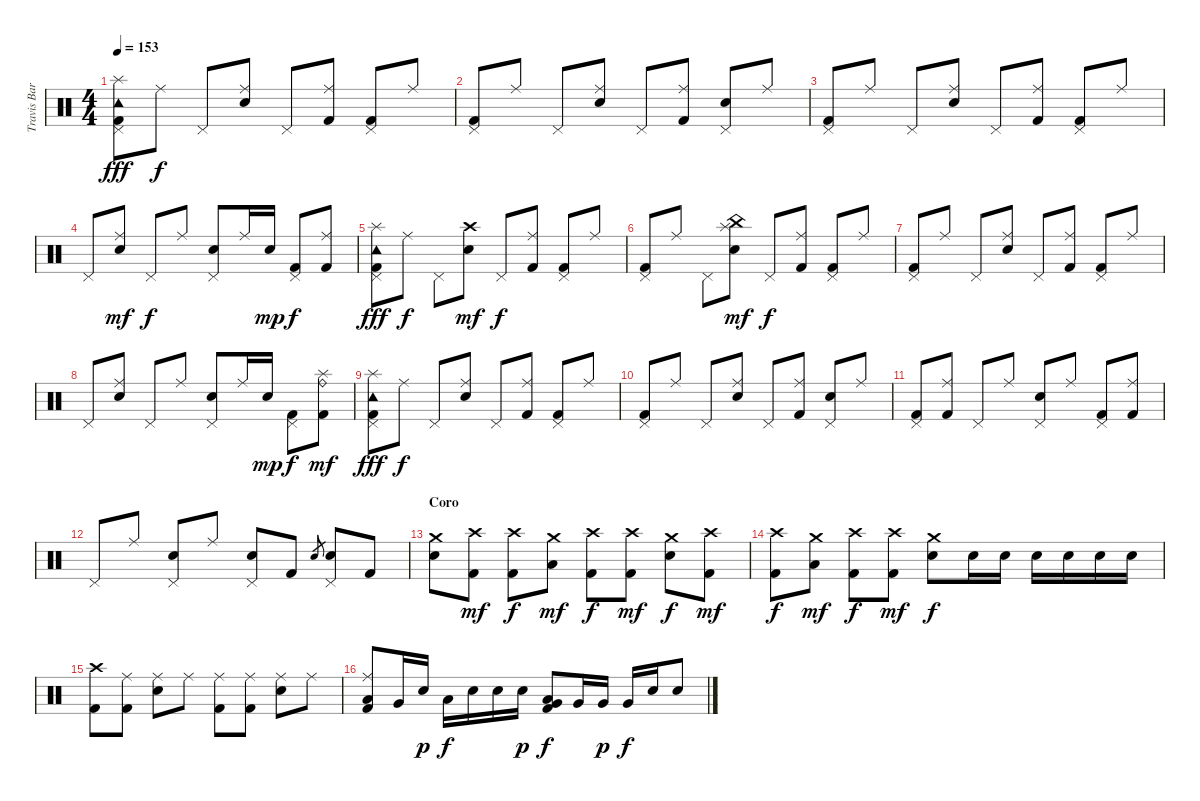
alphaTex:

\track ("Travis Barker" "Travis Bar") {instrument percussion}
\staff {score}
\articulation defaults
\ts (4 4)
\tempo 153
\clef neutral
\ks c
("Splash (hit)" "Tambourine (hit)" "Kick (hit) 2" "Pedal Hi-Hat (hit)").8{dy fff} "Ride (middle)".8{dy f} "Pedal Hi-Hat (hit)".8 ("Ride (middle)" "Electric Snare (hit)").8 "Pedal Hi-Hat (hit)".8 ("Ride (middle)" "Kick (hit) 2").8 ("Kick (hit) 2" "Pedal Hi-Hat (hit)").8 "Ride (middle)".8 |
("Kick (hit) 2" "Pedal Hi-Hat (hit)").8 "Ride (middle)".8 "Pedal Hi-Hat (hit)".8 ("Ride (middle)" "Electric Snare (hit)").8 "Pedal Hi-Hat (hit)".8 ("Ride (middle)" "Kick (hit) 2").8 ("Electric Snare (hit)" "Pedal Hi-Hat (hit)").8 "Ride (middle)".8 |
("Kick (hit) 2" "Pedal Hi-Hat (hit)").8 "Ride (middle)".8 "Pedal Hi-Hat (hit)".8 ("Ride (middle)" "Electric Snare (hit)").8 "Pedal Hi-Hat (hit)".8 ("Ride (middle)" "Kick (hit) 2").8 ("Kick (hit) 2" "Pedal Hi-Hat (hit)").8 "Ride (middle)".8 |
"Pedal Hi-Hat (hit)".8 ("Ride (middle)" "Electric Snare (hit)").8{dy mf} "Pedal Hi-Hat (hit)".8{dy f} "Ride (middle)".8 ("Electric Snare (hit)" "Pedal Hi-Hat (hit)").8 "Ride (middle)".16 "Electric Snare (hit)".16{dy mp} ("Kick (hit) 2" "Pedal Hi-Hat (hit)").8{dy f} ("Ride (middle)" "Kick (hit) 2").8 |
("Splash (hit)" "Tambourine (hit)" "Kick (hit) 2" "Pedal Hi-Hat (hit)").8{dy fff} "Ride (middle)".8{dy f} "Pedal Hi-Hat (hit)".8 ("Crash high (hit)" "Electric Snare (hit)").8{dy mf} "Pedal Hi-Hat (hit)".8{dy f} ("Ride (middle)" "Kick (hit) 2").8 ("Kick (hit) 2" "Pedal Hi-Hat (hit)").8 "Ride (middle)".8 |
("Kick (hit) 2" "Pedal Hi-Hat (hit)").8 "Ride (middle)".8 "Pedal Hi-Hat (hit)".8 ("China (hit)" "Electric Snare (hit)" "Splash (hit)").8{dy mf} "Pedal Hi-Hat (hit)".8{dy f} ("Ride (middle)" "Kick (hit) 2").8 ("Kick (hit) 2" "Pedal Hi-Hat (hit)").8 "Ride (middle)".8 |
("Kick (hit) 2" "Pedal Hi-Hat (hit)").8 "Ride (middle)".8 "Pedal Hi-Hat (hit)".8 ("Ride (middle)" "Electric Snare (hit)").8 "Pedal Hi-Hat (hit)".8 ("Ride (middle)" "Kick (hit) 2").8 ("Kick (hit) 2" "Pedal Hi-Hat (hit)").8 "Ride (middle)".8 |
"Pedal Hi-Hat (hit)".8 ("Ride (middle)" "Electric Snare (hit)").8 "Pedal Hi-Hat (hit)".8 "Ride (middle)".8 ("Electric Snare (hit)" "Pedal Hi-Hat (hit)").8 "Ride (middle)".16 "Electric Snare (hit)".16{dy mp} ("Kick (hit) 2" "Pedal Hi-Hat (hit)").8{dy f} ("Splash (hit)" "Ride (bell)" "Kick (hit) 2").8{dy mf} |
("Splash (hit)" "Tambourine (hit)" "Kick (hit) 2" "Pedal Hi-Hat (hit)").8{dy fff} "Ride (middle)".8{dy f} "Pedal Hi-Hat (hit)".8 ("Ride (middle)" "Electric Snare (hit)").8 "Pedal Hi-Hat (hit)".8 ("Ride (middle)" "Kick (hit) 2").8 ("Kick (hit) 2" "Pedal Hi-Hat (hit)").8 "Ride (middle)".8 |
("Kick (hit) 2" "Pedal Hi-Hat (hit)").8 "Ride (middle)".8 "Pedal Hi-Hat (hit)".8 ("Ride (middle)" "Electric Snare (hit)").8 "Pedal Hi-Hat (hit)".8 ("Ride (middle)" "Kick (hit) 2").8 ("Electric Snare (hit)" "Pedal Hi-Hat (hit)").8 "Ride (middle)".8 |
("Kick (hit) 2" "Pedal Hi-Hat (hit)").8 ("Ride (middle)" "Kick (hit) 2").8 "Pedal Hi-Hat (hit)".8 "Ride (middle)".8 ("Electric Snare (hit)" "Pedal Hi-Hat (hit)").8 "Ride (middle)".8 ("Kick (hit) 2" "Pedal Hi-Hat (hit)").8 ("Ride (middle)" "Kick (hit) 2").8 |
"Pedal Hi-Hat (hit)".8 "Ride (middle)".8 ("Electric Snare (hit)" "Pedal Hi-Hat (hit)").8 "Ride (middle)".8 ("Electric Snare (hit)" "Pedal Hi-Hat (hit)").8 "Kick (hit) 2".8 "Electric Snare (hit)".8{gr} ("Electric Snare (hit)" "Pedal Hi-Hat (hit)").8 "Kick (hit) 2".8 |
\section ("" "Coro")
("Crash medium (hit)" "Electric Snare (hit)").8 ("Crash high (hit)" "Kick (hit) 2").8{dy mf} ("Crash high (hit)" "Kick (hit) 2").8{dy f} ("Crash medium (hit)" "Low Tom (hit)").8{dy mf} ("Crash high (hit)" "Kick (hit) 2").8{dy f} ("Crash high (hit)" "Kick (hit) 2").8{dy mf} ("Crash medium (hit)" "Electric Snare (hit)").8{dy f} ("Crash high (hit)" "Kick (hit) 2").8{dy mf} |
("Crash high (hit)" "Kick (hit) 2").8{dy f} ("Crash medium (hit)" "Low Tom (hit)").8{dy mf} ("Crash high (hit)" "Kick (hit) 2").8{dy f} ("Crash high (hit)" "Kick (hit) 2").8{dy mf} ("Crash medium (hit)" "Electric Snare (hit)").8{dy f} "Electric Snare (hit)".16 "Electric Snare (hit)".16 "Electric Snare (hit)".16 "Electric Snare (hit)".16 "Electric Snare (hit)".16 "Electric Snare (hit)".16 |
("Crash high (hit)" "Kick (hit) 2").8 ("Ride (middle)" "Kick (hit) 2").8 ("Ride (middle)" "Electric Snare (hit)").8 "Ride (middle)".8 ("Ride (middle)" "Kick (hit) 2").8 ("Ride (middle)" "Kick (hit) 2").8 ("Ride (middle)" "Electric Snare (hit)").8 "Ride (middle)".8 |
("Ride (middle)" "Low Tom (hit)" "Kick (hit) 2").8 "Very Low Tom (hit)".16 "Electric Snare (hit)".16{dy p} "Low Tom (hit)".16{dy f} "Electric Snare (hit)".16 "Electric Snare (hit)".16 "Electric Snare (hit)".16{dy p} ("Low Tom (hit)" "Very Low Tom (hit)" "Kick (hit) 2").8{dy f} "Very Low Tom (hit)".16 "Very Low Tom (hit)".16{dy p} "Very Low Tom (hit)".16{dy f} "Electric Snare (hit)".16 "Electric Snare (hit)".8
